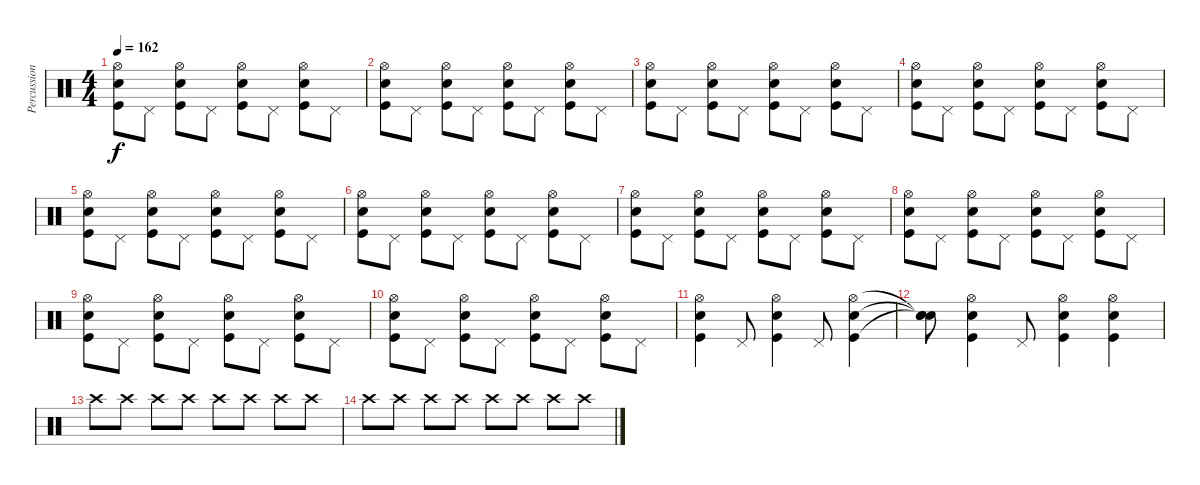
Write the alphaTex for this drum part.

\track ("Percussion" "Percussion") {instrument percussion}
\staff {score}
\articulation defaults
\ts (4 4)
\tempo 162
\clef neutral
\ks c
("Hi-Hat (open)" "Kick (hit)" "Snare (hit) 2").8{dy f} "Pedal Hi-Hat (hit)".8 ("Hi-Hat (open)" "Snare (hit) 2" "Kick (hit)").8 "Pedal Hi-Hat (hit)".8 ("Hi-Hat (open)" "Kick (hit)" "Snare (hit) 2").8 "Pedal Hi-Hat (hit)".8 ("Hi-Hat (open)" "Snare (hit) 2" "Kick (hit)").8 "Pedal Hi-Hat (hit)".8 |
("Hi-Hat (open)" "Kick (hit)" "Snare (hit) 2").8 "Pedal Hi-Hat (hit)".8 ("Hi-Hat (open)" "Snare (hit) 2" "Kick (hit)").8 "Pedal Hi-Hat (hit)".8 ("Hi-Hat (open)" "Kick (hit)" "Snare (hit) 2").8 "Pedal Hi-Hat (hit)".8 ("Hi-Hat (open)" "Snare (hit) 2" "Kick (hit)").8 "Pedal Hi-Hat (hit)".8 |
("Hi-Hat (open)" "Kick (hit)" "Snare (hit) 2").8 "Pedal Hi-Hat (hit)".8 ("Hi-Hat (open)" "Snare (hit) 2" "Kick (hit)").8 "Pedal Hi-Hat (hit)".8 ("Hi-Hat (open)" "Kick (hit)" "Snare (hit) 2").8 "Pedal Hi-Hat (hit)".8 ("Hi-Hat (open)" "Snare (hit) 2" "Kick (hit)").8 "Pedal Hi-Hat (hit)".8 |
("Hi-Hat (open)" "Kick (hit)" "Snare (hit) 2").8 "Pedal Hi-Hat (hit)".8 ("Hi-Hat (open)" "Snare (hit) 2" "Kick (hit)").8 "Pedal Hi-Hat (hit)".8 ("Hi-Hat (open)" "Kick (hit)" "Snare (hit) 2").8 "Pedal Hi-Hat (hit)".8 ("Hi-Hat (open)" "Snare (hit) 2" "Kick (hit)").8 "Pedal Hi-Hat (hit)".8 |
("Hi-Hat (open)" "Kick (hit)" "Snare (hit) 2").8 "Pedal Hi-Hat (hit)".8 ("Hi-Hat (open)" "Snare (hit) 2" "Kick (hit)").8 "Pedal Hi-Hat (hit)".8 ("Hi-Hat (open)" "Kick (hit)" "Snare (hit) 2").8 "Pedal Hi-Hat (hit)".8 ("Hi-Hat (open)" "Snare (hit) 2" "Kick (hit)").8 "Pedal Hi-Hat (hit)".8 |
("Hi-Hat (open)" "Kick (hit)" "Snare (hit) 2").8 "Pedal Hi-Hat (hit)".8 ("Hi-Hat (open)" "Snare (hit) 2" "Kick (hit)").8 "Pedal Hi-Hat (hit)".8 ("Hi-Hat (open)" "Kick (hit)" "Snare (hit) 2").8 "Pedal Hi-Hat (hit)".8 ("Hi-Hat (open)" "Snare (hit) 2" "Kick (hit)").8 "Pedal Hi-Hat (hit)".8 |
("Hi-Hat (open)" "Kick (hit)" "Snare (hit) 2").8 "Pedal Hi-Hat (hit)".8 ("Hi-Hat (open)" "Snare (hit) 2" "Kick (hit)").8 "Pedal Hi-Hat (hit)".8 ("Hi-Hat (open)" "Kick (hit)" "Snare (hit) 2").8 "Pedal Hi-Hat (hit)".8 ("Hi-Hat (open)" "Snare (hit) 2" "Kick (hit)").8 "Pedal Hi-Hat (hit)".8 |
("Hi-Hat (open)" "Kick (hit)" "Snare (hit) 2").8 "Pedal Hi-Hat (hit)".8 ("Hi-Hat (open)" "Snare (hit) 2" "Kick (hit)").8 "Pedal Hi-Hat (hit)".8 ("Hi-Hat (open)" "Kick (hit)" "Snare (hit) 2").8 "Pedal Hi-Hat (hit)".8 ("Hi-Hat (open)" "Snare (hit) 2" "Kick (hit)").8 "Pedal Hi-Hat (hit)".8 |
("Hi-Hat (open)" "Kick (hit)" "Snare (hit) 2").8 "Pedal Hi-Hat (hit)".8 ("Hi-Hat (open)" "Snare (hit) 2" "Kick (hit)").8 "Pedal Hi-Hat (hit)".8 ("Hi-Hat (open)" "Kick (hit)" "Snare (hit) 2").8 "Pedal Hi-Hat (hit)".8 ("Hi-Hat (open)" "Snare (hit) 2" "Kick (hit)").8 "Pedal Hi-Hat (hit)".8 |
("Hi-Hat (open)" "Kick (hit)" "Snare (hit) 2").8 "Pedal Hi-Hat (hit)".8 ("Hi-Hat (open)" "Snare (hit) 2" "Kick (hit)").8 "Pedal Hi-Hat (hit)".8 ("Hi-Hat (open)" "Kick (hit)" "Snare (hit) 2").8 "Pedal Hi-Hat (hit)".8 ("Hi-Hat (open)" "Snare (hit) 2" "Kick (hit)").8 "Pedal Hi-Hat (hit)".8 |
("Hi-Hat (open)" "Kick (hit)" "Snare (hit) 2").4 "Pedal Hi-Hat (hit)".8 ("Hi-Hat (open)" "Snare (hit) 2" "Kick (hit)").4 "Pedal Hi-Hat (hit)".8 ("Hi-Hat (open)" "Kick (hit)" "Snare (hit) 2").4 |
("Snare (hit)"{t} "Snare (hit)"{t} "Snare (hit)"{t}).8 ("Hi-Hat (open)" "Kick (hit)" "Snare (hit) 2").4 "Pedal Hi-Hat (hit)".8 ("Hi-Hat (open)" "Snare (hit) 2" "Kick (hit)").4 ("Hi-Hat (open)" "Kick (hit)" "Snare (hit) 2").4 |
"Crash high (hit)".8 "Crash high (hit)".8 "Crash high (hit)".8 "Crash high (hit)".8 "Crash high (hit)".8 "Crash high (hit)".8 "Crash high (hit)".8 "Crash high (hit)".8 |
"Crash high (hit)".8 "Crash high (hit)".8 "Crash high (hit)".8 "Crash high (hit)".8 "Crash high (hit)".8 "Crash high (hit)".8 "Crash high (hit)".8 "Crash high (hit)".8
